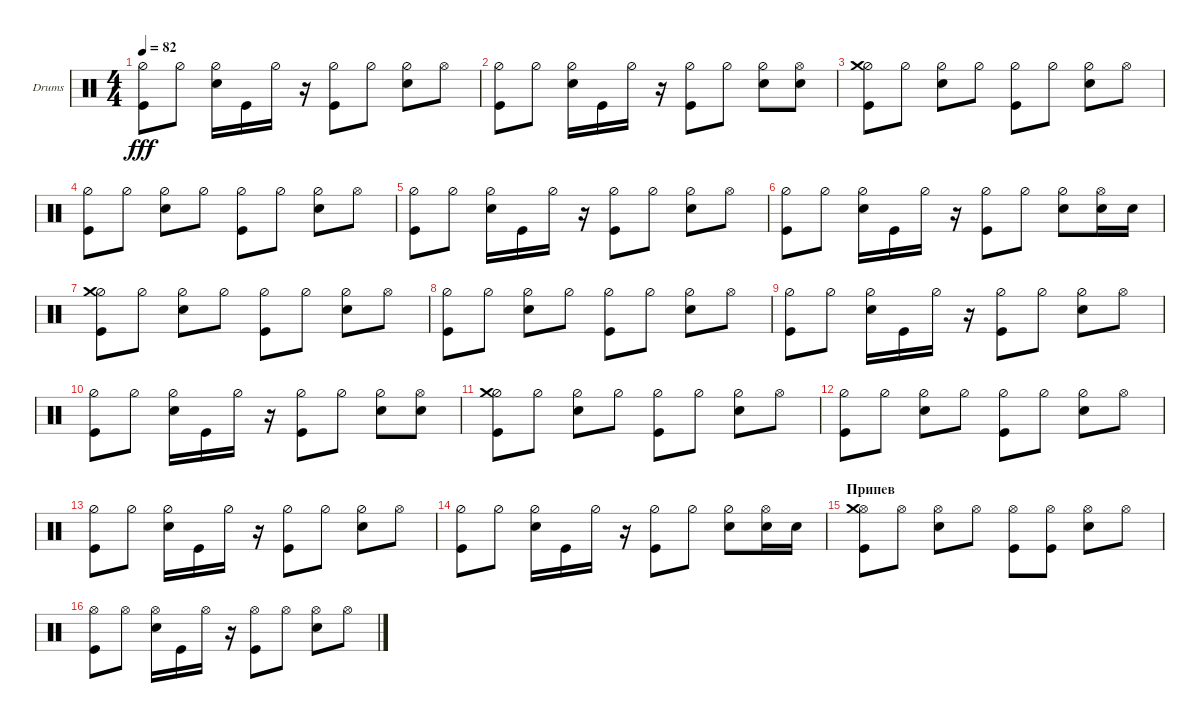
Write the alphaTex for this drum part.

\defaultSystemsLayout 4
\bracketExtendMode groupsimilarinstruments
\firstSystemTrackNameOrientation horizontal
\otherSystemsTrackNameOrientation horizontal
\track ("Drumkit" "Drums") {instrument percussion}
\staff {score}
\articulation defaults
\ts (4 4)
\tempo 82
\clef neutral
\scale
0.333333
\ks c
("Kick (hit)" "Hi-Hat (half)").8{dy fff} "Hi-Hat (half)".8 ("Snare (hit) 2" "Hi-Hat (half)").16 "Kick (hit)".16 "Hi-Hat (half)".16 r.16 ("Hi-Hat (half)" "Kick (hit)").8 "Hi-Hat (half)".8 ("Hi-Hat (half)" "Snare (hit) 2").8 "Hi-Hat (open)".8 |
\scale
0.333333 ("Kick (hit)" "Hi-Hat (half)").8 "Hi-Hat (half)".8 ("Snare (hit) 2" "Hi-Hat (half)").16 "Kick (hit)".16 "Hi-Hat (half)".16 r.16 ("Hi-Hat (half)" "Kick (hit)").8 "Hi-Hat (half)".8 ("Hi-Hat (half)" "Snare (hit) 2").8 ("Hi-Hat (open)" "Snare (hit) 2").8 |
\scale
0.333333 ("Kick (hit)" "Hi-Hat (half)" "Crash medium (hit)").8 "Hi-Hat (half)".8 ("Snare (hit) 2" "Hi-Hat (half)").8 "Hi-Hat (half)".8 ("Kick (hit)" "Hi-Hat (half)").8 "Hi-Hat (half)".8 ("Snare (hit) 2" "Hi-Hat (half)").8 "Hi-Hat (open)".8 |
\scale
0.333333 ("Kick (hit)" "Hi-Hat (half)").8 "Hi-Hat (half)".8 ("Snare (hit) 2" "Hi-Hat (half)").8 "Hi-Hat (half)".8 ("Kick (hit)" "Hi-Hat (half)").8 "Hi-Hat (half)".8 ("Snare (hit) 2" "Hi-Hat (half)").8 "Hi-Hat (open)".8 |
\scale
0.333333 ("Kick (hit)" "Hi-Hat (half)").8 "Hi-Hat (half)".8 ("Snare (hit) 2" "Hi-Hat (half)").16 "Kick (hit)".16 "Hi-Hat (half)".16 r.16 ("Hi-Hat (half)" "Kick (hit)").8 "Hi-Hat (half)".8 ("Hi-Hat (half)" "Snare (hit) 2").8 "Hi-Hat (open)".8 |
\scale
0.333333 ("Kick (hit)" "Hi-Hat (half)").8 "Hi-Hat (half)".8 ("Snare (hit) 2" "Hi-Hat (half)").16 "Kick (hit)".16 "Hi-Hat (half)".16 r.16 ("Hi-Hat (half)" "Kick (hit)").8 "Hi-Hat (half)".8 ("Hi-Hat (half)" "Snare (hit) 2").8 ("Hi-Hat (open)" "Snare (hit) 2").16 "Snare (hit) 2".16 |
\scale
0.333333 ("Kick (hit)" "Hi-Hat (half)" "Crash medium (hit)").8 "Hi-Hat (half)".8 ("Snare (hit) 2" "Hi-Hat (half)").8 "Hi-Hat (half)".8 ("Kick (hit)" "Hi-Hat (half)").8 "Hi-Hat (half)".8 ("Snare (hit) 2" "Hi-Hat (half)").8 "Hi-Hat (open)".8 |
\scale
0.333333 ("Kick (hit)" "Hi-Hat (half)").8 "Hi-Hat (half)".8 ("Snare (hit) 2" "Hi-Hat (half)").8 "Hi-Hat (half)".8 ("Kick (hit)" "Hi-Hat (half)").8 "Hi-Hat (half)".8 ("Snare (hit) 2" "Hi-Hat (half)").8 "Hi-Hat (open)".8 |
\scale
0.333333 ("Kick (hit)" "Hi-Hat (half)").8 "Hi-Hat (half)".8 ("Snare (hit) 2" "Hi-Hat (half)").16 "Kick (hit)".16 "Hi-Hat (half)".16 r.16 ("Hi-Hat (half)" "Kick (hit)").8 "Hi-Hat (half)".8 ("Hi-Hat (half)" "Snare (hit) 2").8 "Hi-Hat (open)".8 |
\scale
0.333333 ("Kick (hit)" "Hi-Hat (half)").8 "Hi-Hat (half)".8 ("Snare (hit) 2" "Hi-Hat (half)").16 "Kick (hit)".16 "Hi-Hat (half)".16 r.16 ("Hi-Hat (half)" "Kick (hit)").8 "Hi-Hat (half)".8 ("Hi-Hat (half)" "Snare (hit) 2").8 ("Hi-Hat (open)" "Snare (hit) 2").8 |
\scale
0.333333 ("Kick (hit)" "Hi-Hat (half)" "Crash medium (hit)").8 "Hi-Hat (half)".8 ("Snare (hit) 2" "Hi-Hat (half)").8 "Hi-Hat (half)".8 ("Kick (hit)" "Hi-Hat (half)").8 "Hi-Hat (half)".8 ("Snare (hit) 2" "Hi-Hat (half)").8 "Hi-Hat (open)".8 |
\scale
0.333333 ("Kick (hit)" "Hi-Hat (half)").8 "Hi-Hat (half)".8 ("Snare (hit) 2" "Hi-Hat (half)").8 "Hi-Hat (half)".8 ("Kick (hit)" "Hi-Hat (half)").8 "Hi-Hat (half)".8 ("Snare (hit) 2" "Hi-Hat (half)").8 "Hi-Hat (open)".8 |
\scale
0.333333 ("Kick (hit)" "Hi-Hat (half)").8 "Hi-Hat (half)".8 ("Snare (hit) 2" "Hi-Hat (half)").16 "Kick (hit)".16 "Hi-Hat (half)".16 r.16 ("Hi-Hat (half)" "Kick (hit)").8 "Hi-Hat (half)".8 ("Hi-Hat (half)" "Snare (hit) 2").8 "Hi-Hat (open)".8 |
\scale
0.333333 ("Kick (hit)" "Hi-Hat (half)").8 "Hi-Hat (half)".8 ("Snare (hit) 2" "Hi-Hat (half)").16 "Kick (hit)".16 "Hi-Hat (half)".16 r.16 ("Hi-Hat (half)" "Kick (hit)").8 "Hi-Hat (half)".8 ("Hi-Hat (half)" "Snare (hit) 2").8 ("Hi-Hat (open)" "Snare (hit) 2").16 "Snare (hit) 2".16 |
\section ("" "Припев")
\scale
0.333333 ("Kick (hit)" "Hi-Hat (open)" "Crash medium (hit)").8 "Hi-Hat (open)".8 ("Snare (hit) 2" "Hi-Hat (open)").8 "Hi-Hat (open)".8 ("Kick (hit)" "Hi-Hat (open)").8 ("Kick (hit)" "Hi-Hat (open)").8 ("Snare (hit) 2" "Hi-Hat (open)").8 "Hi-Hat (open)".8 |
\scale
0.333333 ("Kick (hit)" "Hi-Hat (open)").8 "Hi-Hat (open)".8 ("Snare (hit) 2" "Hi-Hat (open)").16 "Kick (hit)".16 "Hi-Hat (open)".16 r.16 ("Hi-Hat (open)" "Kick (hit)").8 "Hi-Hat (open)".8 ("Hi-Hat (open)" "Snare (hit) 2").8 "Hi-Hat (open)".8
